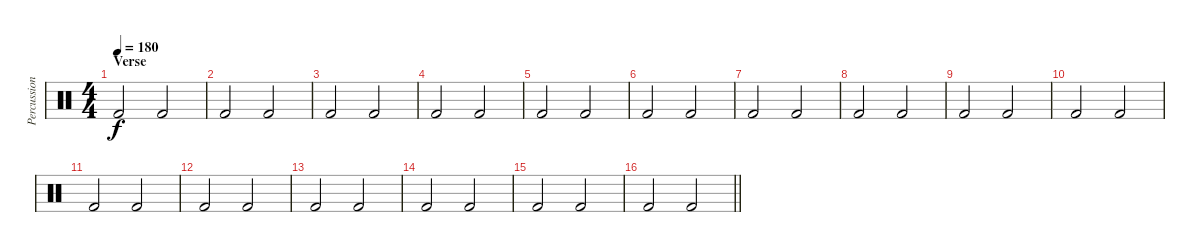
\track ("Percussion" "Percussion") {instrument percussion}
\staff {score}
\articulation defaults
\ts (4 4)
\section ("" "Verse")
\tempo 180
\clef neutral
\ks c "Kick (hit) 2".2{dy f} "Kick (hit) 2".2
|
"Kick (hit) 2".2 "Kick (hit) 2".2 |
"Kick (hit) 2".2 "Kick (hit) 2".2 |
"Kick (hit) 2".2 "Kick (hit) 2".2 |
"Kick (hit) 2".2 "Kick (hit) 2".2 |
"Kick (hit) 2".2 "Kick (hit) 2".2 |
"Kick (hit) 2".2 "Kick (hit) 2".2 |
"Kick (hit) 2".2 "Kick (hit) 2".2 |
"Kick (hit) 2".2 "Kick (hit) 2".2 |
"Kick (hit) 2".2 "Kick (hit) 2".2 |
"Kick (hit) 2".2 "Kick (hit) 2".2 |
"Kick (hit) 2".2 "Kick (hit) 2".2 |
"Kick (hit) 2".2 "Kick (hit) 2".2 |
"Kick (hit) 2".2 "Kick (hit) 2".2 |
"Kick (hit) 2".2 "Kick (hit) 2".2 |
\barLineRight lightlight "Kick (hit) 2".2 "Kick (hit) 2".2
